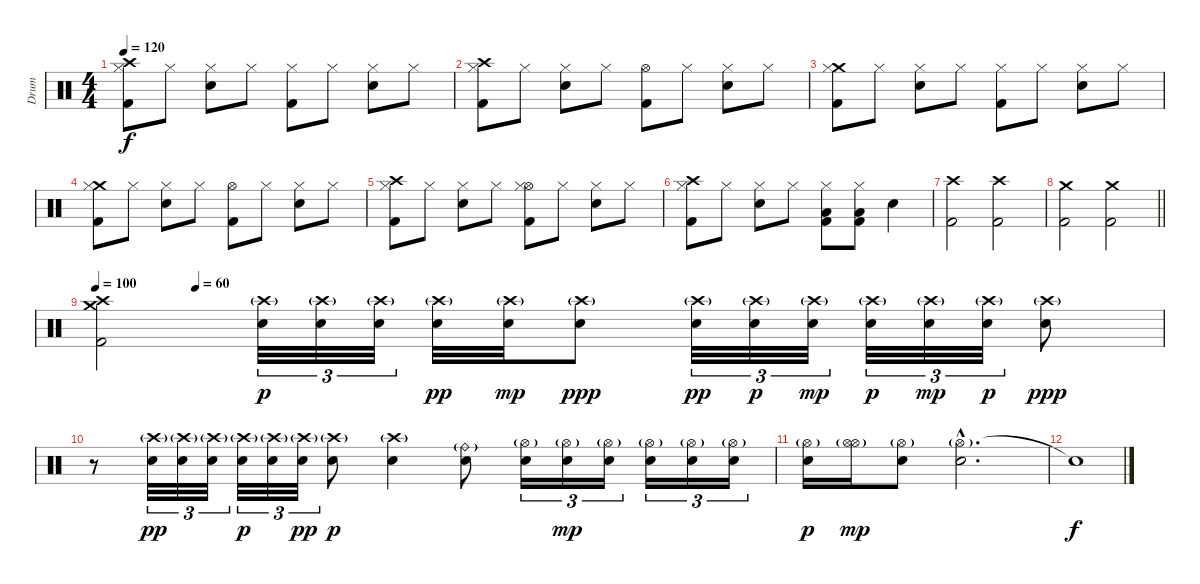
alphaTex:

\track ("Drum" "Drum") {instrument percussion}
\staff {score}
\articulation defaults
\ts (4 4)
\tempo 120
\clef neutral
\ks c
("Crash high (hit)" "Hi-Hat (closed)" "Kick (hit) 2").8{dy f} "Hi-Hat (closed)".8 ("Hi-Hat (closed)" "Snare (hit) 2").8 "Hi-Hat (closed)".8 ("Hi-Hat (closed)" "Kick (hit) 2").8 "Hi-Hat (closed)".8 ("Hi-Hat (closed)" "Snare (hit) 2").8 "Hi-Hat (closed)".8 |
("Crash high (hit)" "Hi-Hat (closed)" "Kick (hit) 2").8 "Hi-Hat (closed)".8 ("Hi-Hat (closed)" "Snare (hit) 2").8 "Hi-Hat (closed)".8 ("Hi-Hat (open)" "Kick (hit) 2").8 "Hi-Hat (closed)".8 ("Hi-Hat (closed)" "Snare (hit) 2").8 "Hi-Hat (closed)".8 |
("Crash medium (hit)" "Hi-Hat (closed)" "Kick (hit) 2").8 "Hi-Hat (closed)".8 ("Hi-Hat (closed)" "Snare (hit) 2").8 "Hi-Hat (closed)".8 ("Hi-Hat (closed)" "Kick (hit) 2").8 "Hi-Hat (closed)".8 ("Hi-Hat (closed)" "Snare (hit) 2").8 "Hi-Hat (closed)".8 |
("Crash medium (hit)" "Hi-Hat (closed)" "Kick (hit) 2").8 "Hi-Hat (closed)".8 ("Hi-Hat (closed)" "Snare (hit) 2").8 "Hi-Hat (closed)".8 ("Hi-Hat (open)" "Kick (hit) 2").8 "Hi-Hat (closed)".8 ("Hi-Hat (closed)" "Snare (hit) 2").8 "Hi-Hat (closed)".8 |
("Crash high (hit)" "Hi-Hat (closed)" "Kick (hit) 2").8 "Hi-Hat (closed)".8 ("Hi-Hat (closed)" "Snare (hit) 2").8 "Hi-Hat (closed)".8 ("Hi-Hat (open)" "Hi-Hat (closed)" "Kick (hit) 2").8 "Hi-Hat (closed)".8 ("Hi-Hat (closed)" "Snare (hit) 2").8 "Hi-Hat (closed)".8 |
("Crash high (hit)" "Hi-Hat (closed)" "Kick (hit) 2").8 "Hi-Hat (closed)".8 ("Hi-Hat (closed)" "Snare (hit) 2").8 "Hi-Hat (closed)".8 ("Hi-Hat (closed)" "Low Floor Tom (hit)" "Kick (hit) 2").8 ("Hi-Hat (closed)" "Low Floor Tom (hit)" "Kick (hit) 2").8 "Snare (hit) 2".4 |
("Crash high (hit)" "Kick (hit) 2").2 ("Crash high (hit)" "Kick (hit) 2").2 |
\barLineRight lightlight
("Crash medium (hit)" "Kick (hit) 2").2 ("Crash medium (hit)" "Kick (hit) 2").2 |
\section ("" "")
\tempo 100
\tempo (60 0.09375)
("Crash high (hit)" "Crash medium (hit)" "Kick (hit) 2").2 ("Crash high (hit)"{g} "Snare (hit)"{x}).32{tu (3 2) dy p} ("Crash high (hit)"{g} "Snare (hit)"{x}).32{tu (3 2)} ("Crash high (hit)"{g} "Snare (hit)"{x}).32{tu (3 2)} ("Crash high (hit)"{g} "Snare (hit)"{x}).32{dy pp} ("Crash high (hit)"{g} "Snare (hit)"{x}).32{dy mp} ("Crash high (hit)"{g} "Snare (hit)"{x}).8{dy ppp} ("Crash high (hit)"{g} "Snare (hit)"{x}).32{tu (3 2) dy pp} ("Crash high (hit)"{g} "Snare (hit)"{x}).32{tu (3 2) dy p} ("Crash high (hit)"{g} "Snare (hit)"{x}).32{tu (3 2) dy mp} ("Crash high (hit)"{g} "Snare (hit)"{x}).32{tu (3 2) dy p} ("Crash high (hit)"{g} "Snare (hit)"{x}).32{tu (3 2) dy mp} ("Crash high (hit)"{g} "Snare (hit)"{x}).32{tu (3 2) dy p} ("Crash high (hit)"{g} "Snare (hit)"{x}).8{dy ppp} |
r.8 ("Crash high (hit)"{g} "Snare (hit)"{x}).32{tu (3 2) dy pp} ("Crash high (hit)"{g} "Snare (hit)"{x}).32{tu (3 2)} ("Crash high (hit)"{g} "Snare (hit)"{x}).32{tu (3 2)} ("Crash high (hit)"{g} "Snare (hit)"{x}).32{tu (3 2) dy p} ("Crash high (hit)"{g} "Snare (hit)"{x}).32{tu (3 2)} ("Crash high (hit)"{g} "Snare (hit)"{x}).32{tu (3 2) dy pp} ("Crash high (hit)"{g} "Snare (hit)"{x}).8{dy p} ("Crash high (hit)"{g} "Snare (hit)"{x}).4 ("Ride (bell)"{g} "Snare (hit)"{x}).8 ("Hi-Hat (open)"{g} "Snare (hit)"{x}).16{tu (3 2)} ("Hi-Hat (open)"{g} "Snare (hit)"{x}).16{tu (3 2) dy mp} ("Hi-Hat (open)"{g} "Snare (hit)"{x}).16{tu (3 2)} ("Hi-Hat (open)"{g} "Snare (hit)"{x}).16{tu (3 2)} ("Hi-Hat (open)"{g} "Snare (hit)"{x}).16{tu (3 2)} ("Hi-Hat (open)"{g} "Snare (hit)"{x}).16{tu (3 2)} |
("Hi-Hat (open)"{g} "Snare (hit)"{x}).16{dy p} ("Hi-Hat (open)"{g} "Hi-Hat (open)"{x}).16{dy mp} ("Hi-Hat (open)"{g} "Snare (hit)"{x}).8 ("Hi-Hat (open)"{g hac} "Snare (hit)"{hac x}).2{d} |
"Snare (hit)"{t}.1{dy f}
